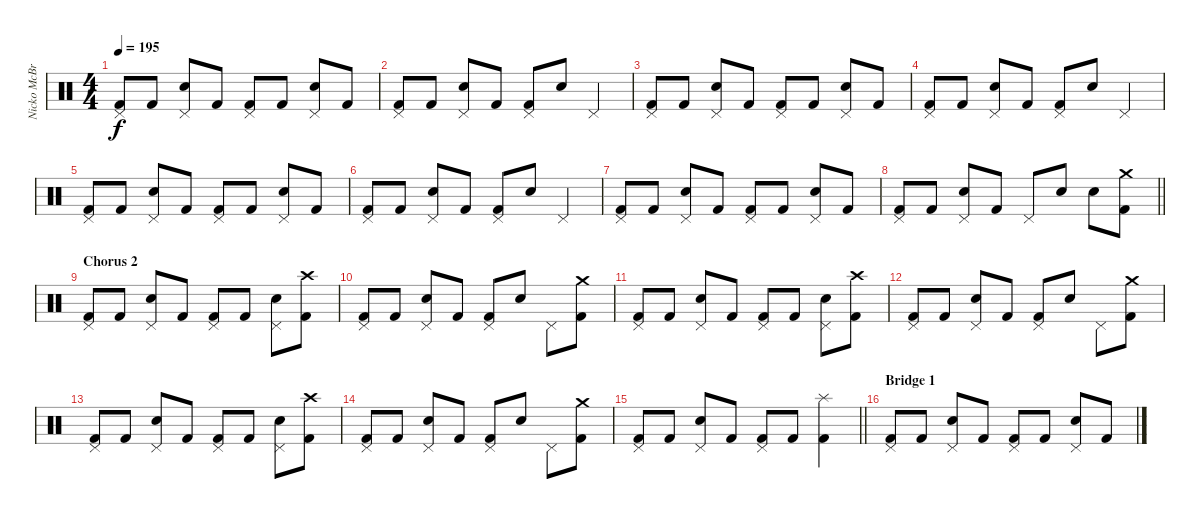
\track ("Nicko McBrain" "Nicko McBr") {instrument percussion}
\staff {score}
\articulation defaults
\ts (4 4)
\tempo 195
\clef neutral
\ks c
("Pedal Hi-Hat (hit)" "Kick (hit) 2").8{dy f} "Kick (hit) 2".8 ("Pedal Hi-Hat (hit)" "Snare (hit) 2").8 "Kick (hit) 2".8 ("Pedal Hi-Hat (hit)" "Kick (hit) 2").8 "Kick (hit) 2".8 ("Pedal Hi-Hat (hit)" "Snare (hit) 2").8 "Kick (hit) 2".8 |
("Pedal Hi-Hat (hit)" "Kick (hit) 2").8 "Kick (hit) 2".8 ("Pedal Hi-Hat (hit)" "Snare (hit) 2").8 "Kick (hit) 2".8 ("Pedal Hi-Hat (hit)" "Kick (hit) 2").8 "Snare (hit) 2".8 "Pedal Hi-Hat (hit)".4 |
("Pedal Hi-Hat (hit)" "Kick (hit) 2").8 "Kick (hit) 2".8 ("Pedal Hi-Hat (hit)" "Snare (hit) 2").8 "Kick (hit) 2".8 ("Pedal Hi-Hat (hit)" "Kick (hit) 2").8 "Kick (hit) 2".8 ("Pedal Hi-Hat (hit)" "Snare (hit) 2").8 "Kick (hit) 2".8 |
("Pedal Hi-Hat (hit)" "Kick (hit) 2").8 "Kick (hit) 2".8 ("Pedal Hi-Hat (hit)" "Snare (hit) 2").8 "Kick (hit) 2".8 ("Pedal Hi-Hat (hit)" "Kick (hit) 2").8 "Snare (hit) 2".8 "Pedal Hi-Hat (hit)".4 |
("Pedal Hi-Hat (hit)" "Kick (hit) 2").8 "Kick (hit) 2".8 ("Pedal Hi-Hat (hit)" "Snare (hit) 2").8 "Kick (hit) 2".8 ("Pedal Hi-Hat (hit)" "Kick (hit) 2").8 "Kick (hit) 2".8 ("Pedal Hi-Hat (hit)" "Snare (hit) 2").8 "Kick (hit) 2".8 |
("Pedal Hi-Hat (hit)" "Kick (hit) 2").8 "Kick (hit) 2".8 ("Pedal Hi-Hat (hit)" "Snare (hit) 2").8 "Kick (hit) 2".8 ("Pedal Hi-Hat (hit)" "Kick (hit) 2").8 "Snare (hit) 2".8 "Pedal Hi-Hat (hit)".4 |
("Pedal Hi-Hat (hit)" "Kick (hit) 2").8 "Kick (hit) 2".8 ("Pedal Hi-Hat (hit)" "Snare (hit) 2").8 "Kick (hit) 2".8 ("Pedal Hi-Hat (hit)" "Kick (hit) 2").8 "Kick (hit) 2".8 ("Pedal Hi-Hat (hit)" "Snare (hit) 2").8 "Kick (hit) 2".8 |
\barLineRight lightlight
("Pedal Hi-Hat (hit)" "Kick (hit) 2").8 "Kick (hit) 2".8 ("Pedal Hi-Hat (hit)" "Snare (hit) 2").8 "Kick (hit) 2".8 "Pedal Hi-Hat (hit)".8 "Snare (hit) 2".8 "Snare (hit) 2".8 ("Crash medium (hit)" "Kick (hit) 2").8 |
\section ("" "Chorus 2")
("Pedal Hi-Hat (hit)" "Kick (hit) 2").8 "Kick (hit) 2".8 ("Pedal Hi-Hat (hit)" "Snare (hit) 2").8 "Kick (hit) 2".8 ("Pedal Hi-Hat (hit)" "Kick (hit) 2").8 "Kick (hit) 2".8 ("Pedal Hi-Hat (hit)" "Snare (hit) 2").8 ("Crash high (hit)" "Kick (hit) 2").8 |
("Pedal Hi-Hat (hit)" "Kick (hit) 2").8 "Kick (hit) 2".8 ("Pedal Hi-Hat (hit)" "Snare (hit) 2").8 "Kick (hit) 2".8 ("Pedal Hi-Hat (hit)" "Kick (hit) 2").8 "Snare (hit) 2".8 "Pedal Hi-Hat (hit)".8 ("Crash medium (hit)" "Kick (hit) 2").8 |
("Pedal Hi-Hat (hit)" "Kick (hit) 2").8 "Kick (hit) 2".8 ("Pedal Hi-Hat (hit)" "Snare (hit) 2").8 "Kick (hit) 2".8 ("Pedal Hi-Hat (hit)" "Kick (hit) 2").8 "Kick (hit) 2".8 ("Pedal Hi-Hat (hit)" "Snare (hit) 2").8 ("Crash high (hit)" "Kick (hit) 2").8 |
("Pedal Hi-Hat (hit)" "Kick (hit) 2").8 "Kick (hit) 2".8 ("Pedal Hi-Hat (hit)" "Snare (hit) 2").8 "Kick (hit) 2".8 ("Pedal Hi-Hat (hit)" "Kick (hit) 2").8 "Snare (hit) 2".8 "Pedal Hi-Hat (hit)".8 ("Crash medium (hit)" "Kick (hit) 2").8 |
("Pedal Hi-Hat (hit)" "Kick (hit) 2").8 "Kick (hit) 2".8 ("Pedal Hi-Hat (hit)" "Snare (hit) 2").8 "Kick (hit) 2".8 ("Pedal Hi-Hat (hit)" "Kick (hit) 2").8 "Kick (hit) 2".8 ("Pedal Hi-Hat (hit)" "Snare (hit) 2").8 ("Crash high (hit)" "Kick (hit) 2").8 |
("Pedal Hi-Hat (hit)" "Kick (hit) 2").8 "Kick (hit) 2".8 ("Pedal Hi-Hat (hit)" "Snare (hit) 2").8 "Kick (hit) 2".8 ("Pedal Hi-Hat (hit)" "Kick (hit) 2").8 "Snare (hit) 2".8 "Pedal Hi-Hat (hit)".8 ("Crash medium (hit)" "Kick (hit) 2").8 |
\barLineRight lightlight
("Pedal Hi-Hat (hit)" "Kick (hit) 2").8 "Kick (hit) 2".8 ("Pedal Hi-Hat (hit)" "Snare (hit) 2").8 "Kick (hit) 2".8 ("Pedal Hi-Hat (hit)" "Kick (hit) 2").8 "Kick (hit) 2".8 ("Splash (hit)" "Kick (hit) 2").4 |
\section ("" "Bridge 1")
("Pedal Hi-Hat (hit)" "Kick (hit) 2").8 "Kick (hit) 2".8 ("Pedal Hi-Hat (hit)" "Snare (hit) 2").8 "Kick (hit) 2".8 ("Pedal Hi-Hat (hit)" "Kick (hit) 2").8 "Kick (hit) 2".8 ("Pedal Hi-Hat (hit)" "Snare (hit) 2").8 "Kick (hit) 2".8
